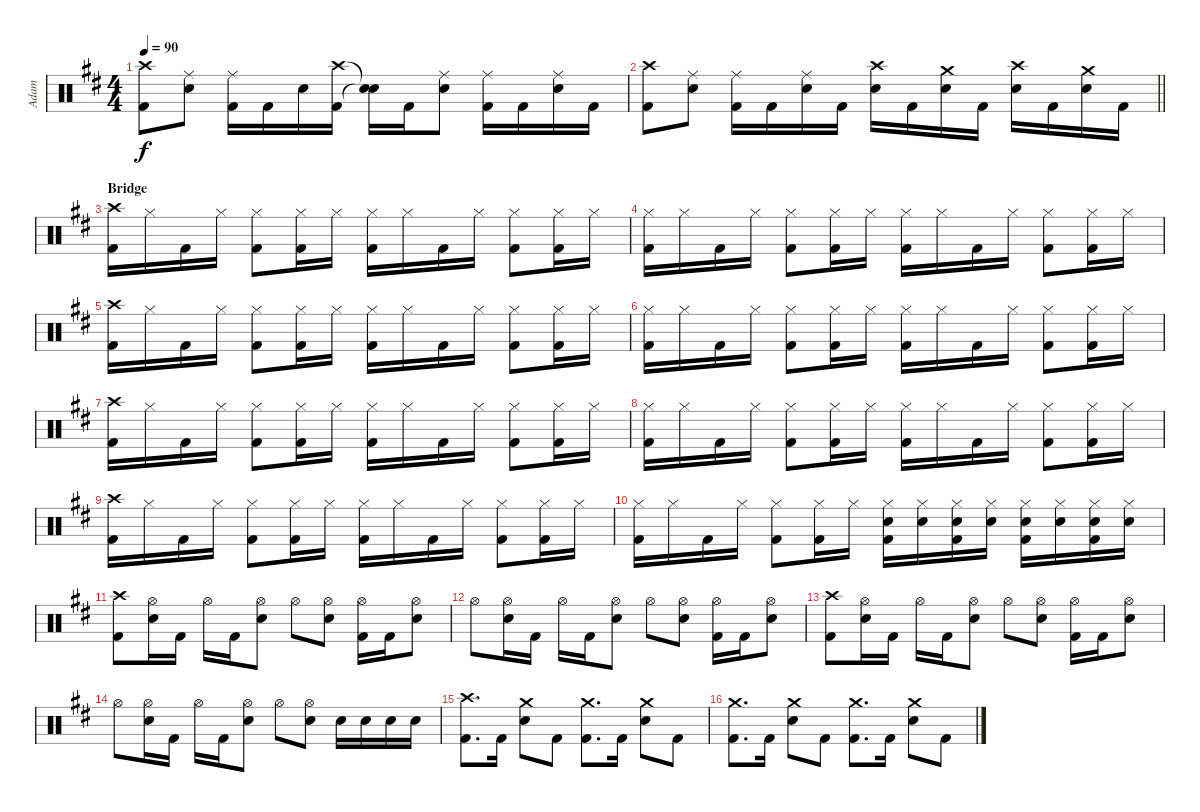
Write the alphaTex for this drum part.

\track ("Adam" "Adam") {instrument percussion}
\staff {score}
\articulation defaults
\ts (4 4)
\tempo 90
\clef neutral
\ks d
("Crash high (hit)" "Kick (hit) 2").8{dy f} ("Ride (middle)" "Snare (hit) 2").8 ("Ride (middle)" "Kick (hit) 2").16 "Kick (hit) 2".16 "Snare (hit) 2".16 ("Crash high (hit)" "Kick (hit) 2").16 ("Snare (hit)"{t} "Snare (hit)"{t}).16 "Kick (hit) 2".16 ("Ride (middle)" "Snare (hit) 2").8 ("Ride (middle)" "Kick (hit) 2").16 "Kick (hit) 2".16 ("Ride (middle)" "Snare (hit) 2").16 "Kick (hit) 2".16 |
\barLineRight lightlight
("Crash high (hit)" "Kick (hit) 2").8 ("Ride (middle)" "Snare (hit) 2").8 ("Ride (middle)" "Kick (hit) 2").16 "Kick (hit) 2".16 ("Ride (middle)" "Snare (hit) 2").16 "Kick (hit) 2".16 ("Crash high (hit)" "Snare (hit) 2").16 "Kick (hit) 2".16 ("Crash medium (hit)" "Snare (hit) 2").16 "Kick (hit) 2".16 ("Crash high (hit)" "Snare (hit) 2").16 "Kick (hit) 2".16 ("Crash medium (hit)" "Snare (hit) 2").16 "Kick (hit) 2".16 |
\section ("" "Bridge")
("Crash high (hit)" "Kick (hit) 2").16 "Hi-Hat (closed)".16 "Kick (hit) 2".16 "Hi-Hat (closed)".16 ("Hi-Hat (closed)" "Kick (hit) 2").8 ("Hi-Hat (closed)" "Kick (hit) 2").16 "Hi-Hat (closed)".16 ("Hi-Hat (closed)" "Kick (hit) 2").16 "Hi-Hat (closed)".16 "Kick (hit) 2".16 "Hi-Hat (closed)".16 ("Hi-Hat (closed)" "Kick (hit) 2").8 ("Hi-Hat (closed)" "Kick (hit) 2").16 "Hi-Hat (closed)".16 |
("Hi-Hat (closed)" "Kick (hit) 2").16 "Hi-Hat (closed)".16 "Kick (hit) 2".16 "Hi-Hat (closed)".16 ("Hi-Hat (closed)" "Kick (hit) 2").8 ("Hi-Hat (closed)" "Kick (hit) 2").16 "Hi-Hat (closed)".16 ("Hi-Hat (closed)" "Kick (hit) 2").16 "Hi-Hat (closed)".16 "Kick (hit) 2".16 "Hi-Hat (closed)".16 ("Hi-Hat (closed)" "Kick (hit) 2").8 ("Hi-Hat (closed)" "Kick (hit) 2").16 "Hi-Hat (closed)".16 |
("Crash high (hit)" "Kick (hit) 2").16 "Hi-Hat (closed)".16 "Kick (hit) 2".16 "Hi-Hat (closed)".16 ("Hi-Hat (closed)" "Kick (hit) 2").8 ("Hi-Hat (closed)" "Kick (hit) 2").16 "Hi-Hat (closed)".16 ("Hi-Hat (closed)" "Kick (hit) 2").16 "Hi-Hat (closed)".16 "Kick (hit) 2".16 "Hi-Hat (closed)".16 ("Hi-Hat (closed)" "Kick (hit) 2").8 ("Hi-Hat (closed)" "Kick (hit) 2").16 "Hi-Hat (closed)".16 |
("Hi-Hat (closed)" "Kick (hit) 2").16 "Hi-Hat (closed)".16 "Kick (hit) 2".16 "Hi-Hat (closed)".16 ("Hi-Hat (closed)" "Kick (hit) 2").8 ("Hi-Hat (closed)" "Kick (hit) 2").16 "Hi-Hat (closed)".16 ("Hi-Hat (closed)" "Kick (hit) 2").16 "Hi-Hat (closed)".16 "Kick (hit) 2".16 "Hi-Hat (closed)".16 ("Hi-Hat (closed)" "Kick (hit) 2").8 ("Hi-Hat (closed)" "Kick (hit) 2").16 "Hi-Hat (closed)".16 |
("Crash high (hit)" "Kick (hit) 2").16 "Hi-Hat (closed)".16 "Kick (hit) 2".16 "Hi-Hat (closed)".16 ("Hi-Hat (closed)" "Kick (hit) 2").8 ("Hi-Hat (closed)" "Kick (hit) 2").16 "Hi-Hat (closed)".16 ("Hi-Hat (closed)" "Kick (hit) 2").16 "Hi-Hat (closed)".16 "Kick (hit) 2".16 "Hi-Hat (closed)".16 ("Hi-Hat (closed)" "Kick (hit) 2").8 ("Hi-Hat (closed)" "Kick (hit) 2").16 "Hi-Hat (closed)".16 |
("Hi-Hat (closed)" "Kick (hit) 2").16 "Hi-Hat (closed)".16 "Kick (hit) 2".16 "Hi-Hat (closed)".16 ("Hi-Hat (closed)" "Kick (hit) 2").8 ("Hi-Hat (closed)" "Kick (hit) 2").16 "Hi-Hat (closed)".16 ("Hi-Hat (closed)" "Kick (hit) 2").16 "Hi-Hat (closed)".16 "Kick (hit) 2".16 "Hi-Hat (closed)".16 ("Hi-Hat (closed)" "Kick (hit) 2").8 ("Hi-Hat (closed)" "Kick (hit) 2").16 "Hi-Hat (closed)".16 |
("Crash high (hit)" "Kick (hit) 2").16 "Hi-Hat (closed)".16 "Kick (hit) 2".16 "Hi-Hat (closed)".16 ("Hi-Hat (closed)" "Kick (hit) 2").8 ("Hi-Hat (closed)" "Kick (hit) 2").16 "Hi-Hat (closed)".16 ("Hi-Hat (closed)" "Kick (hit) 2").16 "Hi-Hat (closed)".16 "Kick (hit) 2".16 "Hi-Hat (closed)".16 ("Hi-Hat (closed)" "Kick (hit) 2").8 ("Hi-Hat (closed)" "Kick (hit) 2").16 "Hi-Hat (closed)".16 |
("Hi-Hat (closed)" "Kick (hit) 2").16 "Hi-Hat (closed)".16 "Kick (hit) 2".16 "Hi-Hat (closed)".16 ("Hi-Hat (closed)" "Kick (hit) 2").8 ("Hi-Hat (closed)" "Kick (hit) 2").16 "Hi-Hat (closed)".16 ("Hi-Hat (closed)" "Snare (hit) 2" "Kick (hit) 2").16 ("Hi-Hat (closed)" "Snare (hit) 2").16 ("Hi-Hat (closed)" "Snare (hit) 2" "Kick (hit) 2").16 ("Hi-Hat (closed)" "Snare (hit) 2").16 ("Hi-Hat (closed)" "Snare (hit) 2" "Kick (hit) 2").16 ("Hi-Hat (closed)" "Snare (hit) 2").16 ("Hi-Hat (closed)" "Snare (hit) 2" "Kick (hit) 2").16 ("Hi-Hat (closed)" "Snare (hit) 2").16 |
("Crash high (hit)" "Kick (hit) 2").8 ("Hi-Hat (open)" "Snare (hit) 2").16 "Kick (hit) 2".16 "Hi-Hat (open)".16 "Kick (hit) 2".16 ("Hi-Hat (open)" "Snare (hit) 2").8 "Hi-Hat (open)".8 ("Hi-Hat (open)" "Snare (hit) 2").8 ("Hi-Hat (open)" "Kick (hit) 2").16 "Kick (hit) 2".16 ("Hi-Hat (open)" "Snare (hit) 2").8 |
"Hi-Hat (open)".8 ("Hi-Hat (open)" "Snare (hit) 2").16 "Kick (hit) 2".16 "Hi-Hat (open)".16 "Kick (hit) 2".16 ("Hi-Hat (open)" "Snare (hit) 2").8 "Hi-Hat (open)".8 ("Hi-Hat (open)" "Snare (hit) 2").8 ("Hi-Hat (open)" "Kick (hit) 2").16 "Kick (hit) 2".16 ("Hi-Hat (open)" "Snare (hit) 2").8 |
("Crash high (hit)" "Kick (hit) 2").8 ("Hi-Hat (open)" "Snare (hit) 2").16 "Kick (hit) 2".16 "Hi-Hat (open)".16 "Kick (hit) 2".16 ("Hi-Hat (open)" "Snare (hit) 2").8 "Hi-Hat (open)".8 ("Hi-Hat (open)" "Snare (hit) 2").8 ("Hi-Hat (open)" "Kick (hit) 2").16 "Kick (hit) 2".16 ("Hi-Hat (open)" "Snare (hit) 2").8 |
"Hi-Hat (open)".8 ("Hi-Hat (open)" "Snare (hit) 2").16 "Kick (hit) 2".16 "Hi-Hat (open)".16 "Kick (hit) 2".16 ("Hi-Hat (open)" "Snare (hit) 2").8 "Hi-Hat (open)".8 ("Hi-Hat (open)" "Snare (hit) 2").8 "Snare (hit) 2".16 "Snare (hit) 2".16 "Snare (hit) 2".16 "Snare (hit) 2".16 |
("Crash high (hit)" "Kick (hit) 2").8{d} "Kick (hit) 2".16 ("Crash medium (hit)" "Snare (hit) 2").8 "Kick (hit) 2".8 ("Crash medium (hit)" "Kick (hit) 2").8{d} "Kick (hit) 2".16 ("Crash medium (hit)" "Snare (hit) 2").8 "Kick (hit) 2".8 |
("Crash medium (hit)" "Kick (hit) 2").8{d} "Kick (hit) 2".16 ("Crash medium (hit)" "Snare (hit) 2").8 "Kick (hit) 2".8 ("Crash medium (hit)" "Kick (hit) 2").8{d} "Kick (hit) 2".16 ("Crash medium (hit)" "Snare (hit) 2").8 "Kick (hit) 2".8
